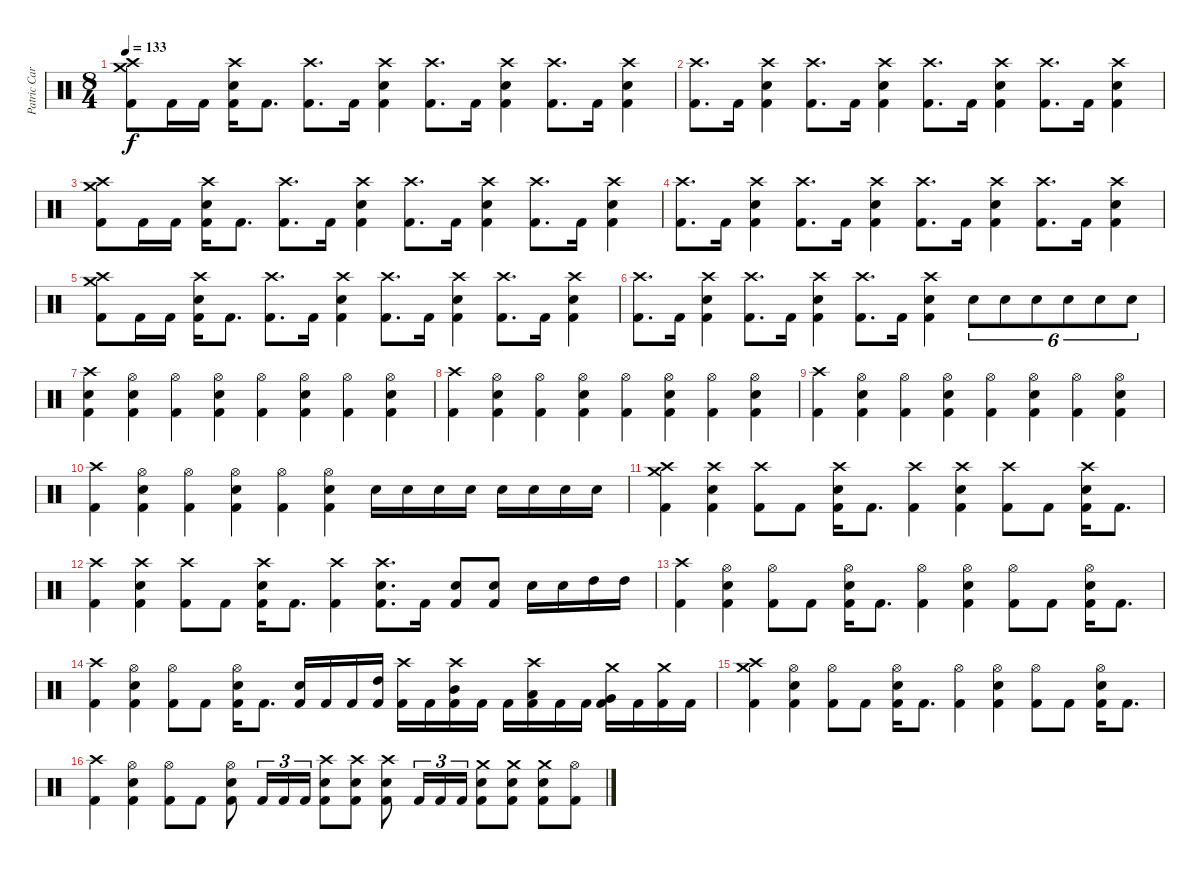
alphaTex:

\track ("Patric Carlsson" "Patric Car") {instrument percussion}
\staff {score}
\articulation defaults
\ts (8 4)
\tempo 133
\clef neutral
\ks c
("Crash medium (hit)" "Crash high (hit)" "Kick (hit) 2").8{dy f} "Kick (hit) 2".16 "Kick (hit) 2".16 ("Crash high (hit)" "Snare (hit) 2" "Kick (hit) 2").16 "Kick (hit) 2".8{d} ("Crash high (hit)" "Kick (hit) 2").8{d} "Kick (hit) 2".16 ("Crash high (hit)" "Snare (hit) 2" "Kick (hit) 2").4 ("Crash high (hit)" "Kick (hit) 2").8{d} "Kick (hit) 2".16 ("Crash high (hit)" "Snare (hit) 2" "Kick (hit) 2").4 ("Crash high (hit)" "Kick (hit) 2").8{d} "Kick (hit) 2".16 ("Crash high (hit)" "Snare (hit) 2" "Kick (hit) 2").4 |
("Crash high (hit)" "Kick (hit) 2").8{d} "Kick (hit) 2".16 ("Crash high (hit)" "Snare (hit) 2" "Kick (hit) 2").4 ("Crash high (hit)" "Kick (hit) 2").8{d} "Kick (hit) 2".16 ("Crash high (hit)" "Snare (hit) 2" "Kick (hit) 2").4 ("Crash high (hit)" "Kick (hit) 2").8{d} "Kick (hit) 2".16 ("Crash high (hit)" "Snare (hit) 2" "Kick (hit) 2").4 ("Crash high (hit)" "Kick (hit) 2").8{d} "Kick (hit) 2".16 ("Crash high (hit)" "Snare (hit) 2" "Kick (hit) 2").4 |
("Crash medium (hit)" "Crash high (hit)" "Kick (hit) 2").8 "Kick (hit) 2".16 "Kick (hit) 2".16 ("Crash high (hit)" "Snare (hit) 2" "Kick (hit) 2").16 "Kick (hit) 2".8{d} ("Crash high (hit)" "Kick (hit) 2").8{d} "Kick (hit) 2".16 ("Crash high (hit)" "Snare (hit) 2" "Kick (hit) 2").4 ("Crash high (hit)" "Kick (hit) 2").8{d} "Kick (hit) 2".16 ("Crash high (hit)" "Snare (hit) 2" "Kick (hit) 2").4 ("Crash high (hit)" "Kick (hit) 2").8{d} "Kick (hit) 2".16 ("Crash high (hit)" "Snare (hit) 2" "Kick (hit) 2").4 |
("Crash high (hit)" "Kick (hit) 2").8{d} "Kick (hit) 2".16 ("Crash high (hit)" "Snare (hit) 2" "Kick (hit) 2").4 ("Crash high (hit)" "Kick (hit) 2").8{d} "Kick (hit) 2".16 ("Crash high (hit)" "Snare (hit) 2" "Kick (hit) 2").4 ("Crash high (hit)" "Kick (hit) 2").8{d} "Kick (hit) 2".16 ("Crash high (hit)" "Snare (hit) 2" "Kick (hit) 2").4 ("Crash high (hit)" "Kick (hit) 2").8{d} "Kick (hit) 2".16 ("Crash high (hit)" "Snare (hit) 2" "Kick (hit) 2").4 |
("Crash medium (hit)" "Crash high (hit)" "Kick (hit) 2").8 "Kick (hit) 2".16 "Kick (hit) 2".16 ("Crash high (hit)" "Snare (hit) 2" "Kick (hit) 2").16 "Kick (hit) 2".8{d} ("Crash high (hit)" "Kick (hit) 2").8{d} "Kick (hit) 2".16 ("Crash high (hit)" "Snare (hit) 2" "Kick (hit) 2").4 ("Crash high (hit)" "Kick (hit) 2").8{d} "Kick (hit) 2".16 ("Crash high (hit)" "Snare (hit) 2" "Kick (hit) 2").4 ("Crash high (hit)" "Kick (hit) 2").8{d} "Kick (hit) 2".16 ("Crash high (hit)" "Snare (hit) 2" "Kick (hit) 2").4 |
("Crash high (hit)" "Kick (hit) 2").8{d} "Kick (hit) 2".16 ("Crash high (hit)" "Snare (hit) 2" "Kick (hit) 2").4 ("Crash high (hit)" "Kick (hit) 2").8{d} "Kick (hit) 2".16 ("Crash high (hit)" "Snare (hit) 2" "Kick (hit) 2").4 ("Crash high (hit)" "Kick (hit) 2").8{d} "Kick (hit) 2".16 ("Crash high (hit)" "Snare (hit) 2" "Kick (hit) 2").4 "Snare (hit) 2".8{tu (6 4)} "Snare (hit) 2".8{tu (6 4)} "Snare (hit) 2".8{tu (6 4)} "Snare (hit) 2".8{tu (6 4)} "Snare (hit) 2".8{tu (6 4)} "Snare (hit) 2".8{tu (6 4)} |
("Crash high (hit)" "Snare (hit) 2" "Kick (hit) 2").4 ("Hi-Hat (open)" "Snare (hit) 2" "Kick (hit) 2").4 ("Hi-Hat (open)" "Kick (hit) 2").4 ("Hi-Hat (open)" "Snare (hit) 2" "Kick (hit) 2").4 ("Hi-Hat (open)" "Kick (hit) 2").4 ("Hi-Hat (open)" "Snare (hit) 2" "Kick (hit) 2").4 ("Hi-Hat (open)" "Kick (hit) 2").4 ("Hi-Hat (open)" "Snare (hit) 2" "Kick (hit) 2").4 |
("Crash high (hit)" "Kick (hit) 2").4 ("Hi-Hat (open)" "Snare (hit) 2" "Kick (hit) 2").4 ("Hi-Hat (open)" "Kick (hit) 2").4 ("Hi-Hat (open)" "Snare (hit) 2" "Kick (hit) 2").4 ("Hi-Hat (open)" "Kick (hit) 2").4 ("Hi-Hat (open)" "Snare (hit) 2" "Kick (hit) 2").4 ("Hi-Hat (open)" "Kick (hit) 2").4 ("Hi-Hat (open)" "Snare (hit) 2" "Kick (hit) 2").4 |
("Crash high (hit)" "Kick (hit) 2").4 ("Hi-Hat (open)" "Snare (hit) 2" "Kick (hit) 2").4 ("Hi-Hat (open)" "Kick (hit) 2").4 ("Hi-Hat (open)" "Snare (hit) 2" "Kick (hit) 2").4 ("Hi-Hat (open)" "Kick (hit) 2").4 ("Hi-Hat (open)" "Snare (hit) 2" "Kick (hit) 2").4 ("Hi-Hat (open)" "Kick (hit) 2").4 ("Hi-Hat (open)" "Snare (hit) 2" "Kick (hit) 2").4 |
("Crash high (hit)" "Kick (hit) 2").4 ("Hi-Hat (open)" "Snare (hit) 2" "Kick (hit) 2").4 ("Hi-Hat (open)" "Kick (hit) 2").4 ("Hi-Hat (open)" "Snare (hit) 2" "Kick (hit) 2").4 ("Hi-Hat (open)" "Kick (hit) 2").4 ("Hi-Hat (open)" "Snare (hit) 2" "Kick (hit) 2").4 "Snare (hit) 2".16 "Snare (hit) 2".16 "Snare (hit) 2".16 "Snare (hit) 2".16 "Snare (hit) 2".16 "Snare (hit) 2".16 "Snare (hit) 2".16 "Snare (hit) 2".16 |
("Crash high (hit)" "Crash medium (hit)" "Kick (hit) 2").4 ("Crash high (hit)" "Snare (hit) 2" "Kick (hit) 2").4 ("Crash high (hit)" "Kick (hit) 2").8 "Kick (hit) 2".8 ("Crash high (hit)" "Snare (hit) 2" "Kick (hit) 2").16 "Kick (hit) 2".8{d} ("Crash high (hit)" "Kick (hit) 2").4 ("Crash high (hit)" "Snare (hit) 2" "Kick (hit) 2").4 ("Crash high (hit)" "Kick (hit) 2").8 "Kick (hit) 2".8 ("Crash high (hit)" "Snare (hit) 2" "Kick (hit) 2").16 "Kick (hit) 2".8{d} |
("Crash high (hit)" "Kick (hit) 2").4 ("Crash high (hit)" "Snare (hit) 2" "Kick (hit) 2").4 ("Crash high (hit)" "Kick (hit) 2").8 "Kick (hit) 2".8 ("Crash high (hit)" "Snare (hit) 2" "Kick (hit) 2").16 "Kick (hit) 2".8{d} ("Crash high (hit)" "Kick (hit) 2").4 ("Crash high (hit)" "Snare (hit) 2" "Kick (hit) 2").8{d} "Kick (hit) 2".16 ("Snare (hit) 2" "Kick (hit) 2").8 ("Snare (hit) 2" "Kick (hit) 2").8 "Snare (hit) 2".16 "Snare (hit) 2".16 "High Tom (hit)".16 "High Tom (hit)".16 |
("Crash high (hit)" "Kick (hit) 2").4 ("Hi-Hat (open)" "Snare (hit) 2" "Kick (hit) 2").4 ("Hi-Hat (open)" "Kick (hit) 2").8 "Kick (hit) 2".8 ("Hi-Hat (open)" "Snare (hit) 2" "Kick (hit) 2").16 "Kick (hit) 2".8{d} ("Hi-Hat (open)" "Kick (hit) 2").4 ("Hi-Hat (open)" "Snare (hit) 2" "Kick (hit) 2").4 ("Hi-Hat (open)" "Kick (hit) 2").8 "Kick (hit) 2".8 ("Hi-Hat (open)" "Snare (hit) 2" "Kick (hit) 2").16 "Kick (hit) 2".8{d} |
("Crash high (hit)" "Kick (hit) 2").4 ("Hi-Hat (open)" "Snare (hit) 2" "Kick (hit) 2").4 ("Hi-Hat (open)" "Kick (hit) 2").8 "Kick (hit) 2".8 ("Hi-Hat (open)" "Snare (hit) 2" "Kick (hit) 2").16 "Kick (hit) 2".8{d} ("Snare (hit) 2" "Kick (hit) 2").16 "Kick (hit) 2".16 "Kick (hit) 2".16 ("High Tom (hit)" "Kick (hit) 2").16 ("Crash high (hit)" "Kick (hit) 2").16 "Kick (hit) 2".16 ("Crash high (hit)" "Mid Tom (hit)" "Kick (hit) 2").16 "Kick (hit) 2".16 "Kick (hit) 2".16 ("Crash high (hit)" "Low Tom (hit)" "Kick (hit) 2").16 "Kick (hit) 2".16 "Kick (hit) 2".16 ("Crash medium (hit)" "Very Low Tom (hit)" "Kick (hit) 2").16 "Kick (hit) 2".16 ("Crash medium (hit)" "Kick (hit) 2").16 "Kick (hit) 2".16 |
("Crash high (hit)" "Crash medium (hit)" "Kick (hit) 2").4 ("Hi-Hat (open)" "Snare (hit) 2" "Kick (hit) 2").4 ("Hi-Hat (open)" "Kick (hit) 2").8 "Kick (hit) 2".8 ("Hi-Hat (open)" "Snare (hit) 2" "Kick (hit) 2").16 "Kick (hit) 2".8{d} ("Hi-Hat (open)" "Kick (hit) 2").4 ("Hi-Hat (open)" "Snare (hit) 2" "Kick (hit) 2").4 ("Hi-Hat (open)" "Kick (hit) 2").8 "Kick (hit) 2".8 ("Hi-Hat (open)" "Snare (hit) 2" "Kick (hit) 2").16 "Kick (hit) 2".8{d} |
("Crash high (hit)" "Kick (hit) 2").4 ("Hi-Hat (open)" "Snare (hit) 2" "Kick (hit) 2").4 ("Hi-Hat (open)" "Kick (hit) 2").8 "Kick (hit) 2".8 ("Hi-Hat (open)" "Snare (hit) 2" "Kick (hit) 2").8 "Kick (hit) 2".16{tu (3 2)} "Kick (hit) 2".16{tu (3 2)} "Kick (hit) 2".16{tu (3 2)} ("Crash high (hit)" "Snare (hit) 2" "Kick (hit) 2").8 ("Crash high (hit)" "Snare (hit) 2" "Kick (hit) 2").8 ("Crash high (hit)" "Snare (hit) 2" "Kick (hit) 2").8 "Kick (hit) 2".16{tu (3 2)} "Kick (hit) 2".16{tu (3 2)} "Kick (hit) 2".16{tu (3 2)} ("Crash medium (hit)" "Snare (hit) 2" "Kick (hit) 2").8 ("Crash medium (hit)" "Snare (hit) 2" "Kick (hit) 2").8 ("Crash medium (hit)" "Snare (hit) 2" "Kick (hit) 2").8 ("Hi-Hat (open)" "Kick (hit) 2").8
